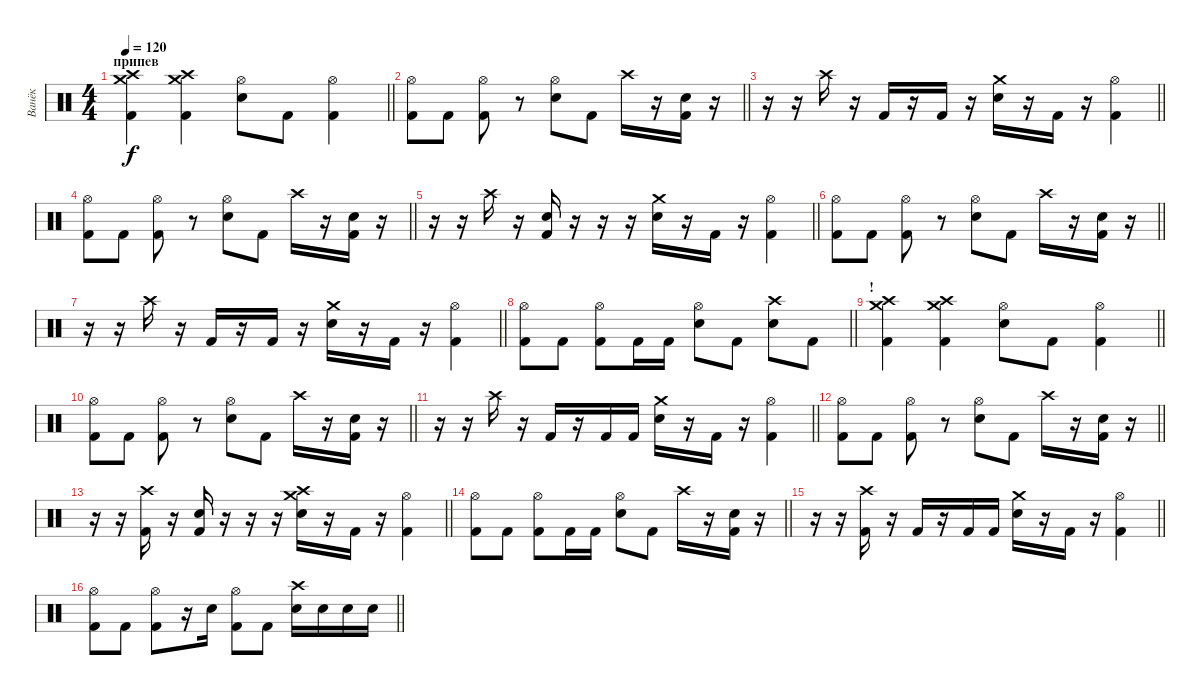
\track ("Ванёк" "Ванёк") {instrument percussion}
\staff {score}
\articulation defaults
\ts (4 4)
\section ("" "припев ")
\tempo 120
\clef neutral
\barLineRight lightlight
\ks c
("Crash high (hit)" "Crash medium (hit)" "Kick (hit) 2").4{dy f} ("Crash high (hit)" "Crash medium (hit)" "Kick (hit) 2").4 ("Hi-Hat (open)" "Snare (hit) 2").8 "Kick (hit) 2".8 ("Hi-Hat (open)" "Kick (hit) 2").4 |
\barLineRight lightlight
("Hi-Hat (open)" "Kick (hit) 2").8 "Kick (hit) 2".8 ("Hi-Hat (open)" "Kick (hit) 2").8 r.8 ("Hi-Hat (open)" "Snare (hit) 2").8 "Kick (hit) 2".8 "Crash high (hit)".16 r.16 ("Snare (hit) 2" "Kick (hit) 2").16 r.16 |
\barLineRight lightlight
r.16 r.16 "Crash high (hit)".16 r.16 "Kick (hit) 2".16 r.16 "Kick (hit) 2".16 r.16 ("Crash medium (hit)" "Snare (hit) 2").16 r.16 "Kick (hit) 2".16 r.16 ("Hi-Hat (open)" "Kick (hit) 2").4 |
\barLineRight lightlight
("Hi-Hat (open)" "Kick (hit) 2").8 "Kick (hit) 2".8 ("Hi-Hat (open)" "Kick (hit) 2").8 r.8 ("Hi-Hat (open)" "Snare (hit) 2").8 "Kick (hit) 2".8 "Crash high (hit)".16 r.16 ("Snare (hit) 2" "Kick (hit) 2").16 r.16 |
\barLineRight lightlight
r.16 r.16 "Crash high (hit)".16 r.16 ("Snare (hit) 2" "Kick (hit) 2").16 r.16 r.16 r.16 ("Crash medium (hit)" "Snare (hit) 2").16 r.16 "Kick (hit) 2".16 r.16 ("Hi-Hat (open)" "Kick (hit) 2").4 |
\barLineRight lightlight
("Hi-Hat (open)" "Kick (hit) 2").8 "Kick (hit) 2".8 ("Hi-Hat (open)" "Kick (hit) 2").8 r.8 ("Hi-Hat (open)" "Snare (hit) 2").8 "Kick (hit) 2".8 "Crash high (hit)".16 r.16 ("Snare (hit) 2" "Kick (hit) 2").16 r.16 |
\barLineRight lightlight
r.16 r.16 "Crash high (hit)".16 r.16 "Kick (hit) 2".16 r.16 "Kick (hit) 2".16 r.16 ("Crash medium (hit)" "Snare (hit) 2").16 r.16 "Kick (hit) 2".16 r.16 ("Hi-Hat (open)" "Kick (hit) 2").4 |
\barLineRight lightlight
("Hi-Hat (open)" "Kick (hit) 2").8 "Kick (hit) 2".8 ("Hi-Hat (open)" "Kick (hit) 2").8 "Kick (hit) 2".16 "Kick (hit) 2".16 ("Hi-Hat (open)" "Snare (hit) 2").8 "Kick (hit) 2".8 ("Crash high (hit)" "Snare (hit) 2").8 "Kick (hit) 2".8 |
\section ("" "!")
\barLineRight lightlight
("Crash high (hit)" "Crash medium (hit)" "Kick (hit) 2").4 ("Crash high (hit)" "Crash medium (hit)" "Kick (hit) 2").4 ("Hi-Hat (open)" "Snare (hit) 2").8 "Kick (hit) 2".8 ("Hi-Hat (open)" "Kick (hit) 2").4 |
\barLineRight lightlight
("Hi-Hat (open)" "Kick (hit) 2").8 "Kick (hit) 2".8 ("Hi-Hat (open)" "Kick (hit) 2").8 r.8 ("Hi-Hat (open)" "Snare (hit) 2").8 "Kick (hit) 2".8 "Crash high (hit)".16 r.16 ("Snare (hit) 2" "Kick (hit) 2").16 r.16 |
\barLineRight lightlight
r.16 r.16 "Crash high (hit)".16 r.16 "Kick (hit) 2".16 r.16 "Kick (hit) 2".16 "Kick (hit) 2".16 ("Crash medium (hit)" "Snare (hit) 2").16 r.16 "Kick (hit) 2".16 r.16 ("Hi-Hat (open)" "Kick (hit) 2").4 |
\barLineRight lightlight
("Hi-Hat (open)" "Kick (hit) 2").8 "Kick (hit) 2".8 ("Hi-Hat (open)" "Kick (hit) 2").8 r.8 ("Hi-Hat (open)" "Snare (hit) 2").8 "Kick (hit) 2".8 "Crash high (hit)".16 r.16 ("Snare (hit) 2" "Kick (hit) 2").16 r.16 |
\barLineRight lightlight
r.16 r.16 ("Crash high (hit)" "Kick (hit) 2").16 r.16 ("Snare (hit) 2" "Kick (hit) 2").16 r.16 r.16 r.16 ("Crash medium (hit)" "Crash high (hit)" "Snare (hit) 2").16 r.16 "Kick (hit) 2".16 r.16 ("Hi-Hat (open)" "Kick (hit) 2").4 |
\barLineRight lightlight
("Hi-Hat (open)" "Kick (hit) 2").8 "Kick (hit) 2".8 ("Hi-Hat (open)" "Kick (hit) 2").8 "Kick (hit) 2".16 "Kick (hit) 2".16 ("Hi-Hat (open)" "Snare (hit) 2").8 "Kick (hit) 2".8 "Crash high (hit)".16 r.16 ("Snare (hit) 2" "Kick (hit) 2").16 r.16 |
\barLineRight lightlight
r.16 r.16 ("Crash high (hit)" "Kick (hit) 2").16 r.16 "Kick (hit) 2".16 r.16 "Kick (hit) 2".16 "Kick (hit) 2".16 ("Crash medium (hit)" "Snare (hit) 2").16 r.16 "Kick (hit) 2".16 r.16 ("Hi-Hat (open)" "Kick (hit) 2").4 |
\barLineRight lightlight
("Hi-Hat (open)" "Kick (hit) 2").8 "Kick (hit) 2".8 ("Hi-Hat (open)" "Kick (hit) 2").8 r.16 "Snare (hit) 2".16 ("Hi-Hat (open)" "Kick (hit) 2").8 "Kick (hit) 2".8 ("Crash high (hit)" "Snare (hit) 2").16 "Snare (hit) 2".16 "Snare (hit) 2".16 "Snare (hit) 2".16
